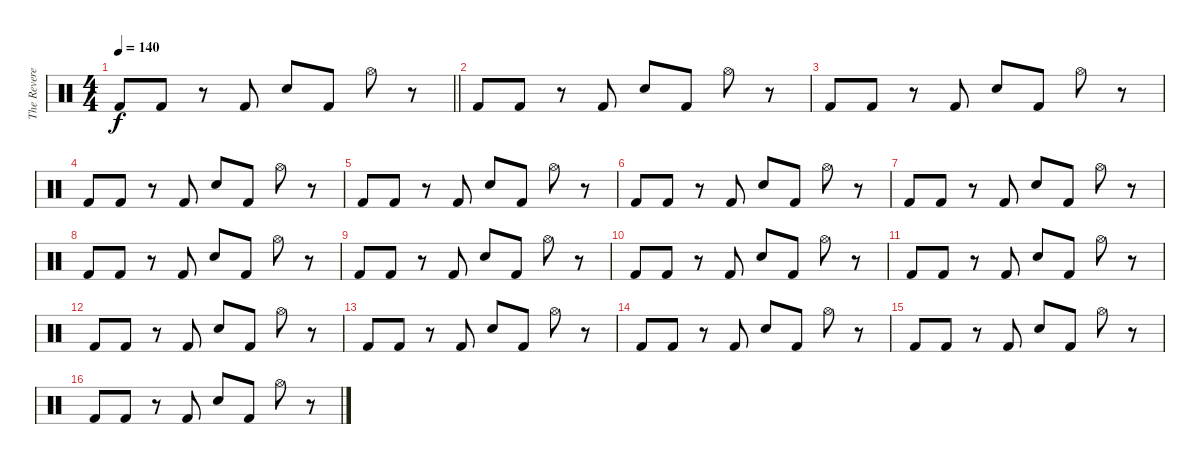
\track ("The Reverend" "The Revere") {instrument percussion}
\staff {score}
\articulation defaults
\ts (4 4)
\tempo 140
\clef neutral
\barLineRight lightlight
\ks c "Kick (hit) 2".8{dy f} "Kick (hit) 2".8
r.8 "Kick (hit) 2".8 "Snare (hit) 2".8 "Kick (hit) 2".8 "Hi-Hat (open)".8 r.8 |
\section ("" "")
"Kick (hit) 2".8 "Kick (hit) 2".8 r.8 "Kick (hit) 2".8 "Snare (hit) 2".8 "Kick (hit) 2".8 "Hi-Hat (open)".8 r.8 |
"Kick (hit) 2".8 "Kick (hit) 2".8 r.8 "Kick (hit) 2".8 "Snare (hit) 2".8 "Kick (hit) 2".8 "Hi-Hat (open)".8 r.8 |
"Kick (hit) 2".8 "Kick (hit) 2".8 r.8 "Kick (hit) 2".8 "Snare (hit) 2".8 "Kick (hit) 2".8 "Hi-Hat (open)".8 r.8 |
"Kick (hit) 2".8 "Kick (hit) 2".8 r.8 "Kick (hit) 2".8 "Snare (hit) 2".8 "Kick (hit) 2".8 "Hi-Hat (open)".8 r.8 |
"Kick (hit) 2".8 "Kick (hit) 2".8 r.8 "Kick (hit) 2".8 "Snare (hit) 2".8 "Kick (hit) 2".8 "Hi-Hat (open)".8 r.8 |
"Kick (hit) 2".8 "Kick (hit) 2".8 r.8 "Kick (hit) 2".8 "Snare (hit) 2".8 "Kick (hit) 2".8 "Hi-Hat (open)".8 r.8 |
"Kick (hit) 2".8 "Kick (hit) 2".8 r.8 "Kick (hit) 2".8 "Snare (hit) 2".8 "Kick (hit) 2".8 "Hi-Hat (open)".8 r.8 |
"Kick (hit) 2".8 "Kick (hit) 2".8 r.8 "Kick (hit) 2".8 "Snare (hit) 2".8 "Kick (hit) 2".8 "Hi-Hat (open)".8 r.8 |
"Kick (hit) 2".8 "Kick (hit) 2".8 r.8 "Kick (hit) 2".8 "Snare (hit) 2".8 "Kick (hit) 2".8 "Hi-Hat (open)".8 r.8 |
"Kick (hit) 2".8 "Kick (hit) 2".8 r.8 "Kick (hit) 2".8 "Snare (hit) 2".8 "Kick (hit) 2".8 "Hi-Hat (open)".8 r.8 |
"Kick (hit) 2".8 "Kick (hit) 2".8 r.8 "Kick (hit) 2".8 "Snare (hit) 2".8 "Kick (hit) 2".8 "Hi-Hat (open)".8 r.8 |
"Kick (hit) 2".8 "Kick (hit) 2".8 r.8 "Kick (hit) 2".8 "Snare (hit) 2".8 "Kick (hit) 2".8 "Hi-Hat (open)".8 r.8 |
"Kick (hit) 2".8 "Kick (hit) 2".8 r.8 "Kick (hit) 2".8 "Snare (hit) 2".8 "Kick (hit) 2".8 "Hi-Hat (open)".8 r.8 |
"Kick (hit) 2".8 "Kick (hit) 2".8 r.8 "Kick (hit) 2".8 "Snare (hit) 2".8 "Kick (hit) 2".8 "Hi-Hat (open)".8 r.8 |
"Kick (hit) 2".8 "Kick (hit) 2".8 r.8 "Kick (hit) 2".8 "Snare (hit) 2".8 "Kick (hit) 2".8 "Hi-Hat (open)".8 r.8
